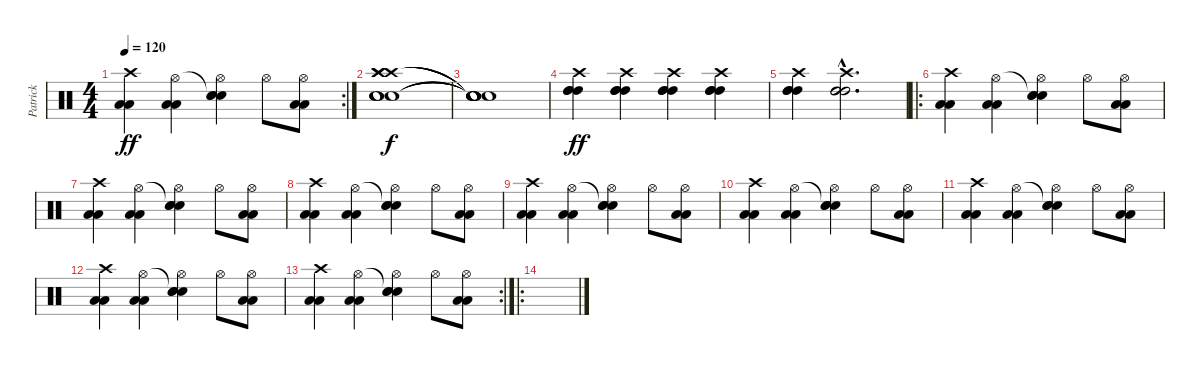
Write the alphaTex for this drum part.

\track ("Patrick" "Patrick") {instrument percussion}
\staff {score}
\articulation defaults
\rc 2
\ts (4 4)
\tempo 120
\clef neutral
\ks c
("Crash high (hit)" "Low Floor Tom (hit)" "Low Floor Tom (hit)").4{dy ff} ("Hi-Hat (open)" "Low Floor Tom (hit)" "Low Floor Tom (hit)").4 ("Snare (hit)"{t} "Hi-Hat (open)" "Electric Snare (hit)" "Electric Snare (hit)").4 "Hi-Hat (open)".8 ("Hi-Hat (open)" "Low Floor Tom (hit)" "Low Floor Tom (hit)").8 |
("Crash high (hit)" "Crash high (hit)" "Crash high (hit)" "Electric Snare (hit)" "Electric Snare (hit)" "Electric Snare (hit)").1{dy f} |
("Snare (hit)"{t} "Snare (hit)"{t} "Snare (hit)"{t} "Snare (hit)"{t} "Snare (hit)"{t} "Snare (hit)"{t}).1 |
("Crash high (hit)" "High Tom (hit)" "High Tom (hit)" "High Tom (hit)").4{dy ff} ("Crash high (hit)" "High Tom (hit)" "High Tom (hit)" "High Tom (hit)").4 ("Crash high (hit)" "High Tom (hit)" "High Tom (hit)" "High Tom (hit)").4 ("Crash high (hit)" "High Tom (hit)" "High Tom (hit)" "High Tom (hit)").4 |
("Crash high (hit)" "High Tom (hit)" "High Tom (hit)" "High Tom (hit)").4 ("Crash high (hit)"{hac} "High Tom (hit)"{hac} "High Tom (hit)"{hac} "High Tom (hit)"{hac}).2{d} |
\ro
("Crash high (hit)" "Low Floor Tom (hit)" "Low Floor Tom (hit)").4 ("Hi-Hat (open)" "Low Floor Tom (hit)" "Low Floor Tom (hit)").4 ("Snare (hit)"{t} "Hi-Hat (open)" "Electric Snare (hit)" "Electric Snare (hit)").4 "Hi-Hat (open)".8 ("Hi-Hat (open)" "Low Floor Tom (hit)" "Low Floor Tom (hit)").8 |
("Crash high (hit)" "Low Floor Tom (hit)" "Low Floor Tom (hit)").4 ("Hi-Hat (open)" "Low Floor Tom (hit)" "Low Floor Tom (hit)").4 ("Snare (hit)"{t} "Hi-Hat (open)" "Electric Snare (hit)" "Electric Snare (hit)").4 "Hi-Hat (open)".8 ("Hi-Hat (open)" "Low Floor Tom (hit)" "Low Floor Tom (hit)").8 |
("Crash high (hit)" "Low Floor Tom (hit)" "Low Floor Tom (hit)").4 ("Hi-Hat (open)" "Low Floor Tom (hit)" "Low Floor Tom (hit)").4 ("Snare (hit)"{t} "Hi-Hat (open)" "Electric Snare (hit)" "Electric Snare (hit)").4 "Hi-Hat (open)".8 ("Hi-Hat (open)" "Low Floor Tom (hit)" "Low Floor Tom (hit)").8 |
("Crash high (hit)" "Low Floor Tom (hit)" "Low Floor Tom (hit)").4 ("Hi-Hat (open)" "Low Floor Tom (hit)" "Low Floor Tom (hit)").4 ("Snare (hit)"{t} "Hi-Hat (open)" "Electric Snare (hit)" "Electric Snare (hit)").4 "Hi-Hat (open)".8 ("Hi-Hat (open)" "Low Floor Tom (hit)" "Low Floor Tom (hit)").8 |
("Crash high (hit)" "Low Floor Tom (hit)" "Low Floor Tom (hit)").4 ("Hi-Hat (open)" "Low Floor Tom (hit)" "Low Floor Tom (hit)").4 ("Snare (hit)"{t} "Hi-Hat (open)" "Electric Snare (hit)" "Electric Snare (hit)").4 "Hi-Hat (open)".8 ("Hi-Hat (open)" "Low Floor Tom (hit)" "Low Floor Tom (hit)").8 |
("Crash high (hit)" "Low Floor Tom (hit)" "Low Floor Tom (hit)").4 ("Hi-Hat (open)" "Low Floor Tom (hit)" "Low Floor Tom (hit)").4 ("Snare (hit)"{t} "Hi-Hat (open)" "Electric Snare (hit)" "Electric Snare (hit)").4 "Hi-Hat (open)".8 ("Hi-Hat (open)" "Low Floor Tom (hit)" "Low Floor Tom (hit)").8 |
("Crash high (hit)" "Low Floor Tom (hit)" "Low Floor Tom (hit)").4 ("Hi-Hat (open)" "Low Floor Tom (hit)" "Low Floor Tom (hit)").4 ("Snare (hit)"{t} "Hi-Hat (open)" "Electric Snare (hit)" "Electric Snare (hit)").4 "Hi-Hat (open)".8 ("Hi-Hat (open)" "Low Floor Tom (hit)" "Low Floor Tom (hit)").8 |
\rc 2
("Crash high (hit)" "Low Floor Tom (hit)" "Low Floor Tom (hit)").4 ("Hi-Hat (open)" "Low Floor Tom (hit)" "Low Floor Tom (hit)").4 ("Snare (hit)"{t} "Hi-Hat (open)" "Electric Snare (hit)" "Electric Snare (hit)").4 "Hi-Hat (open)".8 ("Hi-Hat (open)" "Low Floor Tom (hit)" "Low Floor Tom (hit)").8 |
\ro
